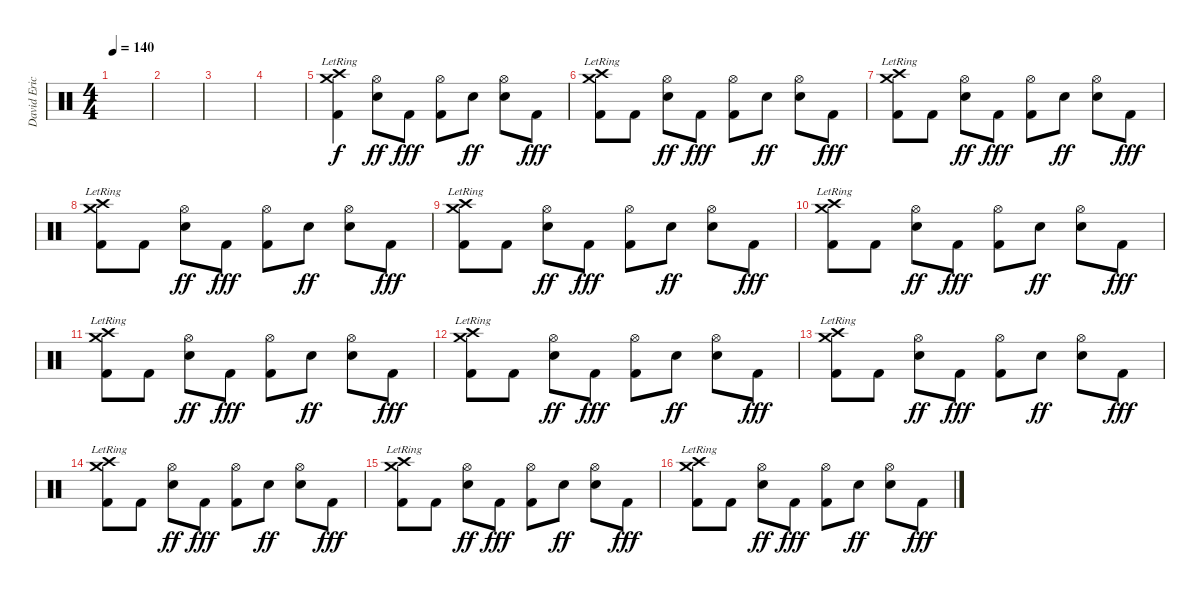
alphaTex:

\track ("David Eric Grohl" "David Eric") {instrument percussion}
\staff {score}
\articulation defaults
\ts (4 4)
\tempo 140
\clef neutral
\ks c
|
|
|
|
("Crash high (hit)"{lr} "Crash medium (hit)"{lr} "Kick (hit) 2").4 ("Hi-Hat (open)" "Electric Snare (hit)").8{dy ff} "Kick (hit) 2".8{dy fff} ("Hi-Hat (open)" "Kick (hit) 2").8 "Electric Snare (hit)".8{dy ff} ("Hi-Hat (open)" "Electric Snare (hit)").8 "Kick (hit) 2".8{dy fff} |
("Crash high (hit)"{lr} "Crash medium (hit)"{lr} "Kick (hit) 2").8 "Kick (hit) 2".8 ("Hi-Hat (open)" "Electric Snare (hit)").8{dy ff} "Kick (hit) 2".8{dy fff} ("Hi-Hat (open)" "Kick (hit) 2").8 "Electric Snare (hit)".8{dy ff} ("Hi-Hat (open)" "Electric Snare (hit)").8 "Kick (hit) 2".8{dy fff} |
("Crash high (hit)"{lr} "Crash medium (hit)"{lr} "Kick (hit) 2").8 "Kick (hit) 2".8 ("Hi-Hat (open)" "Electric Snare (hit)").8{dy ff} "Kick (hit) 2".8{dy fff} ("Hi-Hat (open)" "Kick (hit) 2").8 "Electric Snare (hit)".8{dy ff} ("Hi-Hat (open)" "Electric Snare (hit)").8 "Kick (hit) 2".8{dy fff} |
("Crash high (hit)"{lr} "Crash medium (hit)"{lr} "Kick (hit) 2").8 "Kick (hit) 2".8 ("Hi-Hat (open)" "Electric Snare (hit)").8{dy ff} "Kick (hit) 2".8{dy fff} ("Hi-Hat (open)" "Kick (hit) 2").8 "Electric Snare (hit)".8{dy ff} ("Hi-Hat (open)" "Electric Snare (hit)").8 "Kick (hit) 2".8{dy fff} |
("Crash high (hit)"{lr} "Crash medium (hit)"{lr} "Kick (hit) 2").8 "Kick (hit) 2".8 ("Hi-Hat (open)" "Electric Snare (hit)").8{dy ff} "Kick (hit) 2".8{dy fff} ("Hi-Hat (open)" "Kick (hit) 2").8 "Electric Snare (hit)".8{dy ff} ("Hi-Hat (open)" "Electric Snare (hit)").8 "Kick (hit) 2".8{dy fff} |
("Crash high (hit)"{lr} "Crash medium (hit)"{lr} "Kick (hit) 2").8 "Kick (hit) 2".8 ("Hi-Hat (open)" "Electric Snare (hit)").8{dy ff} "Kick (hit) 2".8{dy fff} ("Hi-Hat (open)" "Kick (hit) 2").8 "Electric Snare (hit)".8{dy ff} ("Hi-Hat (open)" "Electric Snare (hit)").8 "Kick (hit) 2".8{dy fff} |
("Crash high (hit)"{lr} "Crash medium (hit)"{lr} "Kick (hit) 2").8 "Kick (hit) 2".8 ("Hi-Hat (open)" "Electric Snare (hit)").8{dy ff} "Kick (hit) 2".8{dy fff} ("Hi-Hat (open)" "Kick (hit) 2").8 "Electric Snare (hit)".8{dy ff} ("Hi-Hat (open)" "Electric Snare (hit)").8 "Kick (hit) 2".8{dy fff} |
("Crash high (hit)"{lr} "Crash medium (hit)"{lr} "Kick (hit) 2").8 "Kick (hit) 2".8 ("Hi-Hat (open)" "Electric Snare (hit)").8{dy ff} "Kick (hit) 2".8{dy fff} ("Hi-Hat (open)" "Kick (hit) 2").8 "Electric Snare (hit)".8{dy ff} ("Hi-Hat (open)" "Electric Snare (hit)").8 "Kick (hit) 2".8{dy fff} |
("Crash high (hit)"{lr} "Crash medium (hit)"{lr} "Kick (hit) 2").8 "Kick (hit) 2".8 ("Hi-Hat (open)" "Electric Snare (hit)").8{dy ff} "Kick (hit) 2".8{dy fff} ("Hi-Hat (open)" "Kick (hit) 2").8 "Electric Snare (hit)".8{dy ff} ("Hi-Hat (open)" "Electric Snare (hit)").8 "Kick (hit) 2".8{dy fff} |
("Crash high (hit)"{lr} "Crash medium (hit)"{lr} "Kick (hit) 2").8 "Kick (hit) 2".8 ("Hi-Hat (open)" "Electric Snare (hit)").8{dy ff} "Kick (hit) 2".8{dy fff} ("Hi-Hat (open)" "Kick (hit) 2").8 "Electric Snare (hit)".8{dy ff} ("Hi-Hat (open)" "Electric Snare (hit)").8 "Kick (hit) 2".8{dy fff} |
("Crash high (hit)"{lr} "Crash medium (hit)"{lr} "Kick (hit) 2").8 "Kick (hit) 2".8 ("Hi-Hat (open)" "Electric Snare (hit)").8{dy ff} "Kick (hit) 2".8{dy fff} ("Hi-Hat (open)" "Kick (hit) 2").8 "Electric Snare (hit)".8{dy ff} ("Hi-Hat (open)" "Electric Snare (hit)").8 "Kick (hit) 2".8{dy fff} |
("Crash high (hit)"{lr} "Crash medium (hit)"{lr} "Kick (hit) 2").8 "Kick (hit) 2".8 ("Hi-Hat (open)" "Electric Snare (hit)").8{dy ff} "Kick (hit) 2".8{dy fff} ("Hi-Hat (open)" "Kick (hit) 2").8 "Electric Snare (hit)".8{dy ff} ("Hi-Hat (open)" "Electric Snare (hit)").8 "Kick (hit) 2".8{dy fff}
